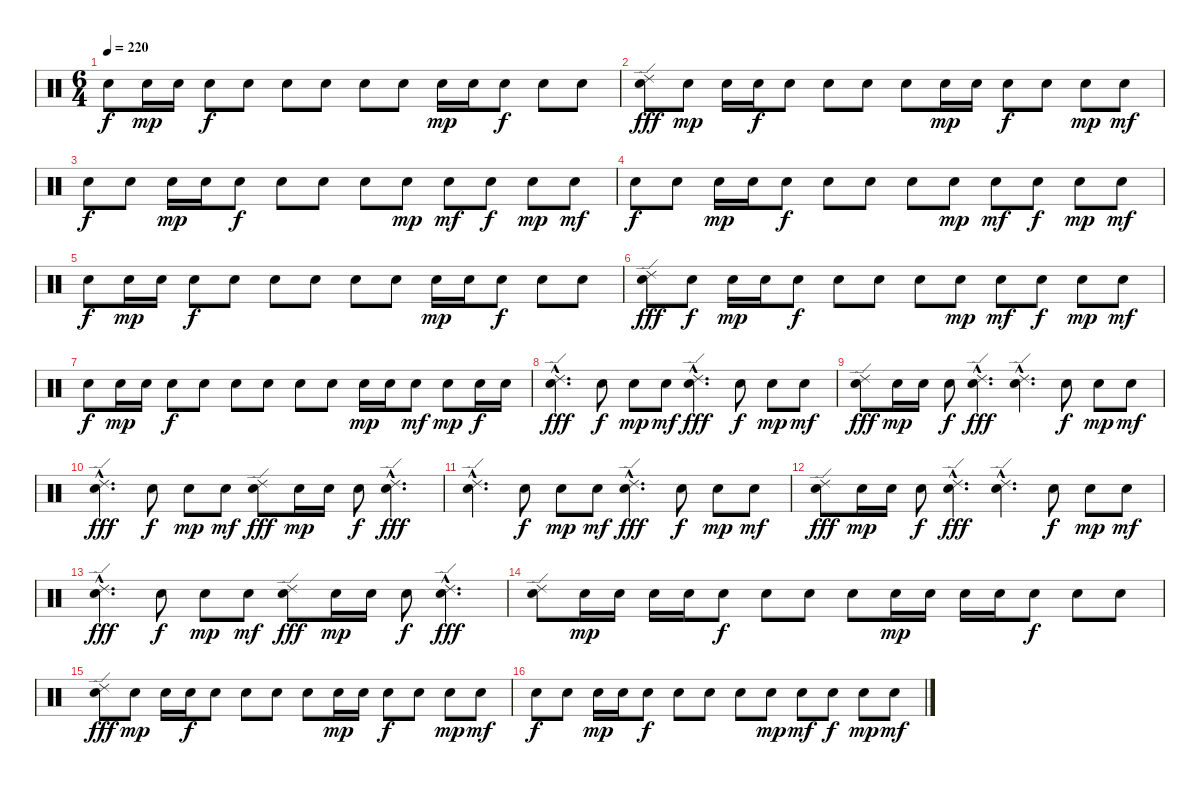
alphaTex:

\track "" {instrument percussion}
\staff {score}
\articulation defaults
\ts (6 4)
\tempo 220
\clef neutral
\ks c "Snare (hit) 2".8{dy f} "Snare (hit) 2".16{dy mp} "Snare (hit) 2".16 "Snare (hit) 2".8{dy f} "Snare (hit) 2".8 "Snare (hit) 2".8 "Snare (hit) 2".8 "Snare (hit) 2".8 "Snare (hit) 2".8 "Snare (hit) 2".16{dy mp} "Snare (hit) 2".16 "Snare (hit) 2".8{dy f} "Snare (hit) 2".8 "Snare (hit) 2".8
|
("Snare (hit) 2" "Ride (edge) 2").8{dy fff} "Snare (hit) 2".8{dy mp} "Snare (hit) 2".16 "Snare (hit) 2".16{dy f} "Snare (hit) 2".8 "Snare (hit) 2".8 "Snare (hit) 2".8 "Snare (hit) 2".8 "Snare (hit) 2".16{dy mp} "Snare (hit) 2".16 "Snare (hit) 2".8{dy f} "Snare (hit) 2".8 "Snare (hit) 2".8{dy mp} "Snare (hit) 2".8{dy mf} |
"Snare (hit) 2".8{dy f} "Snare (hit) 2".8 "Snare (hit) 2".16{dy mp} "Snare (hit) 2".16 "Snare (hit) 2".8{dy f} "Snare (hit) 2".8 "Snare (hit) 2".8 "Snare (hit) 2".8 "Snare (hit) 2".8{dy mp} "Snare (hit) 2".8{dy mf} "Snare (hit) 2".8{dy f} "Snare (hit) 2".8{dy mp} "Snare (hit) 2".8{dy mf} |
"Snare (hit) 2".8{dy f} "Snare (hit) 2".8 "Snare (hit) 2".16{dy mp} "Snare (hit) 2".16 "Snare (hit) 2".8{dy f} "Snare (hit) 2".8 "Snare (hit) 2".8 "Snare (hit) 2".8 "Snare (hit) 2".8{dy mp} "Snare (hit) 2".8{dy mf} "Snare (hit) 2".8{dy f} "Snare (hit) 2".8{dy mp} "Snare (hit) 2".8{dy mf} |
"Snare (hit) 2".8{dy f} "Snare (hit) 2".16{dy mp} "Snare (hit) 2".16 "Snare (hit) 2".8{dy f} "Snare (hit) 2".8 "Snare (hit) 2".8 "Snare (hit) 2".8 "Snare (hit) 2".8 "Snare (hit) 2".8 "Snare (hit) 2".16{dy mp} "Snare (hit) 2".16 "Snare (hit) 2".8{dy f} "Snare (hit) 2".8 "Snare (hit) 2".8 |
("Snare (hit) 2" "Ride (edge) 2").8{dy fff} "Snare (hit) 2".8{dy f} "Snare (hit) 2".16{dy mp} "Snare (hit) 2".16 "Snare (hit) 2".8{dy f} "Snare (hit) 2".8 "Snare (hit) 2".8 "Snare (hit) 2".8 "Snare (hit) 2".8{dy mp} "Snare (hit) 2".8{dy mf} "Snare (hit) 2".8{dy f} "Snare (hit) 2".8{dy mp} "Snare (hit) 2".8{dy mf} |
"Snare (hit) 2".8{dy f} "Snare (hit) 2".16{dy mp} "Snare (hit) 2".16 "Snare (hit) 2".8{dy f} "Snare (hit) 2".8 "Snare (hit) 2".8 "Snare (hit) 2".8 "Snare (hit) 2".8 "Snare (hit) 2".8 "Snare (hit) 2".16{dy mp} "Snare (hit) 2".16 "Snare (hit) 2".8{dy mf} "Snare (hit) 2".8{dy mp} "Snare (hit) 2".16{dy f} "Snare (hit) 2".16 |
("Snare (hit) 2"{hac} "Ride (edge) 2"{hac}).4{d dy fff} "Snare (hit) 2".8{dy f} "Snare (hit) 2".8{dy mp} "Snare (hit) 2".8{dy mf} ("Snare (hit) 2"{hac} "Ride (edge) 2"{hac}).4{d dy fff} "Snare (hit) 2".8{dy f} "Snare (hit) 2".8{dy mp} "Snare (hit) 2".8{dy mf} |
("Ride (edge) 2" "Snare (hit) 2").8{dy fff} "Snare (hit) 2".16{dy mp} "Snare (hit) 2".16 "Snare (hit) 2".8{dy f} ("Ride (edge) 2"{hac} "Snare (hit) 2"{hac}).4{d dy fff} ("Ride (edge) 2"{hac} "Snare (hit) 2"{hac}).4{d} "Snare (hit) 2".8{dy f} "Snare (hit) 2".8{dy mp} "Snare (hit) 2".8{dy mf} |
("Ride (edge) 2"{hac} "Snare (hit) 2"{hac}).4{d dy fff} "Snare (hit) 2".8{dy f} "Snare (hit) 2".8{dy mp} "Snare (hit) 2".8{dy mf} ("Ride (edge) 2" "Snare (hit) 2").8{dy fff} "Snare (hit) 2".16{dy mp} "Snare (hit) 2".16 "Snare (hit) 2".8{dy f} ("Ride (edge) 2"{hac} "Snare (hit) 2"{hac}).4{d dy fff} |
("Snare (hit) 2"{hac} "Ride (edge) 2"{hac}).4{d} "Snare (hit) 2".8{dy f} "Snare (hit) 2".8{dy mp} "Snare (hit) 2".8{dy mf} ("Snare (hit) 2"{hac} "Ride (edge) 2"{hac}).4{d dy fff} "Snare (hit) 2".8{dy f} "Snare (hit) 2".8{dy mp} "Snare (hit) 2".8{dy mf} |
("Ride (edge) 2" "Snare (hit) 2").8{dy fff} "Snare (hit) 2".16{dy mp} "Snare (hit) 2".16 "Snare (hit) 2".8{dy f} ("Ride (edge) 2"{hac} "Snare (hit) 2"{hac}).4{d dy fff} ("Ride (edge) 2"{hac} "Snare (hit) 2"{hac}).4{d} "Snare (hit) 2".8{dy f} "Snare (hit) 2".8{dy mp} "Snare (hit) 2".8{dy mf} |
("Ride (edge) 2"{hac} "Snare (hit) 2"{hac}).4{d dy fff} "Snare (hit) 2".8{dy f} "Snare (hit) 2".8{dy mp} "Snare (hit) 2".8{dy mf} ("Ride (edge) 2" "Snare (hit) 2").8{dy fff} "Snare (hit) 2".16{dy mp} "Snare (hit) 2".16 "Snare (hit) 2".8{dy f} ("Ride (edge) 2"{hac} "Snare (hit) 2"{hac}).4{d dy fff} |
("Ride (edge) 2" "Snare (hit) 2").8 "Snare (hit) 2".16{dy mp} "Snare (hit) 2".16 "Snare (hit) 2".16 "Snare (hit) 2".16 "Snare (hit) 2".8{dy f} "Snare (hit) 2".8 "Snare (hit) 2".8 "Snare (hit) 2".8 "Snare (hit) 2".16{dy mp} "Snare (hit) 2".16 "Snare (hit) 2".16 "Snare (hit) 2".16 "Snare (hit) 2".8{dy f} "Snare (hit) 2".8 "Snare (hit) 2".8 |
("Snare (hit) 2" "Ride (edge) 2").8{dy fff} "Snare (hit) 2".8{dy mp} "Snare (hit) 2".16 "Snare (hit) 2".16{dy f} "Snare (hit) 2".8 "Snare (hit) 2".8 "Snare (hit) 2".8 "Snare (hit) 2".8 "Snare (hit) 2".16{dy mp} "Snare (hit) 2".16 "Snare (hit) 2".8{dy f} "Snare (hit) 2".8 "Snare (hit) 2".8{dy mp} "Snare (hit) 2".8{dy mf} |
"Snare (hit) 2".8{dy f} "Snare (hit) 2".8 "Snare (hit) 2".16{dy mp} "Snare (hit) 2".16 "Snare (hit) 2".8{dy f} "Snare (hit) 2".8 "Snare (hit) 2".8 "Snare (hit) 2".8 "Snare (hit) 2".8{dy mp} "Snare (hit) 2".8{dy mf} "Snare (hit) 2".8{dy f} "Snare (hit) 2".8{dy mp} "Snare (hit) 2".8{dy mf}
